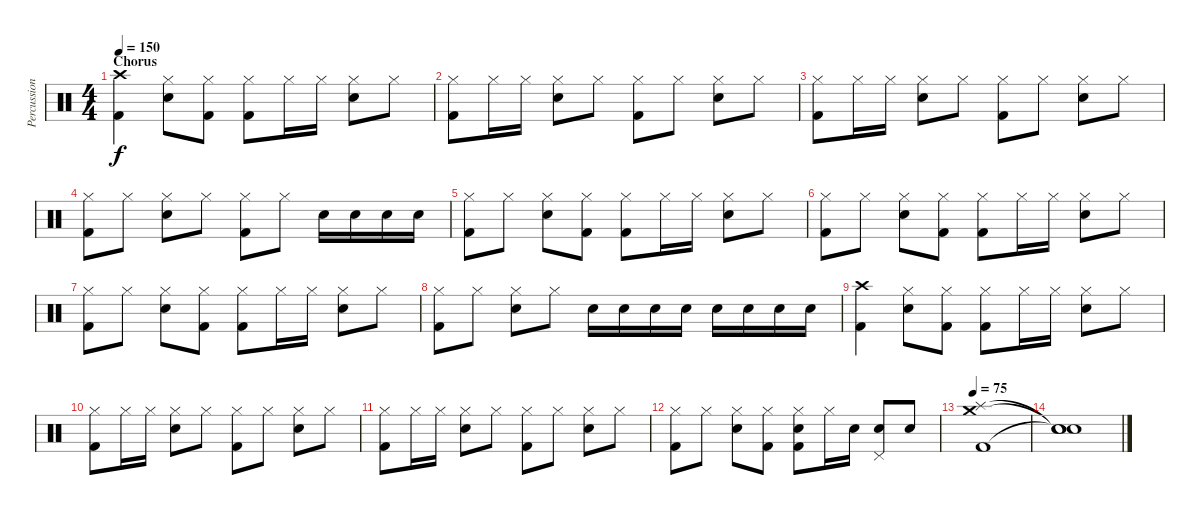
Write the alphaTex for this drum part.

\track ("Percussion" "Percussion") {instrument percussion}
\staff {score}
\articulation defaults
\ts (4 4)
\section ("" "Chorus")
\tempo 150
\clef neutral
\ks c
("Crash high (hit)" "Kick (hit) 2").4{dy f} ("Hi-Hat (closed)" "Snare (hit) 2").8 ("Hi-Hat (closed)" "Kick (hit) 2").8 ("Hi-Hat (closed)" "Kick (hit) 2").8 "Hi-Hat (closed)".16 "Hi-Hat (closed)".16 ("Hi-Hat (closed)" "Snare (hit) 2").8 "Hi-Hat (closed)".8 |
("Hi-Hat (closed)" "Kick (hit) 2").8 "Hi-Hat (closed)".16 "Hi-Hat (closed)".16 ("Hi-Hat (closed)" "Snare (hit) 2").8 "Hi-Hat (closed)".8 ("Hi-Hat (closed)" "Kick (hit) 2").8 "Hi-Hat (closed)".8 ("Hi-Hat (closed)" "Snare (hit) 2").8 "Hi-Hat (closed)".8 |
("Hi-Hat (closed)" "Kick (hit) 2").8 "Hi-Hat (closed)".16 "Hi-Hat (closed)".16 ("Hi-Hat (closed)" "Snare (hit) 2").8 "Hi-Hat (closed)".8 ("Hi-Hat (closed)" "Kick (hit) 2").8 "Hi-Hat (closed)".8 ("Hi-Hat (closed)" "Snare (hit) 2").8 "Hi-Hat (closed)".8 |
("Hi-Hat (closed)" "Kick (hit) 2").8 "Hi-Hat (closed)".8 ("Hi-Hat (closed)" "Snare (hit) 2").8 "Hi-Hat (closed)".8 ("Hi-Hat (closed)" "Kick (hit) 2").8 "Hi-Hat (closed)".8 "Snare (hit) 2".16 "Snare (hit) 2".16 "Snare (hit) 2".16 "Snare (hit) 2".16 |
("Hi-Hat (closed)" "Kick (hit) 2").8 "Hi-Hat (closed)".8 ("Hi-Hat (closed)" "Snare (hit) 2").8 ("Hi-Hat (closed)" "Kick (hit) 2").8 ("Hi-Hat (closed)" "Kick (hit) 2").8 "Hi-Hat (closed)".16 "Hi-Hat (closed)".16 ("Hi-Hat (closed)" "Snare (hit) 2").8 "Hi-Hat (closed)".8 |
("Hi-Hat (closed)" "Kick (hit) 2").8 "Hi-Hat (closed)".8 ("Hi-Hat (closed)" "Snare (hit) 2").8 ("Hi-Hat (closed)" "Kick (hit) 2").8 ("Hi-Hat (closed)" "Kick (hit) 2").8 "Hi-Hat (closed)".16 "Hi-Hat (closed)".16 ("Hi-Hat (closed)" "Snare (hit) 2").8 "Hi-Hat (closed)".8 |
("Hi-Hat (closed)" "Kick (hit) 2").8 "Hi-Hat (closed)".8 ("Hi-Hat (closed)" "Snare (hit) 2").8 ("Hi-Hat (closed)" "Kick (hit) 2").8 ("Hi-Hat (closed)" "Kick (hit) 2").8 "Hi-Hat (closed)".16 "Hi-Hat (closed)".16 ("Hi-Hat (closed)" "Snare (hit) 2").8 "Hi-Hat (closed)".8 |
("Hi-Hat (closed)" "Kick (hit) 2").8 "Hi-Hat (closed)".8 ("Hi-Hat (closed)" "Snare (hit) 2").8 "Hi-Hat (closed)".8 "Snare (hit) 2".16 "Snare (hit) 2".16 "Snare (hit) 2".16 "Snare (hit) 2".16 "Snare (hit) 2".16 "Snare (hit) 2".16 "Snare (hit) 2".16 "Snare (hit) 2".16 |
("Crash high (hit)" "Kick (hit) 2").4 ("Hi-Hat (closed)" "Snare (hit) 2").8 ("Hi-Hat (closed)" "Kick (hit) 2").8 ("Hi-Hat (closed)" "Kick (hit) 2").8 "Hi-Hat (closed)".16 "Hi-Hat (closed)".16 ("Hi-Hat (closed)" "Snare (hit) 2").8 "Hi-Hat (closed)".8 |
("Hi-Hat (closed)" "Kick (hit) 2").8 "Hi-Hat (closed)".16 "Hi-Hat (closed)".16 ("Hi-Hat (closed)" "Snare (hit) 2").8 "Hi-Hat (closed)".8 ("Hi-Hat (closed)" "Kick (hit) 2").8 "Hi-Hat (closed)".8 ("Hi-Hat (closed)" "Snare (hit) 2").8 "Hi-Hat (closed)".8 |
("Hi-Hat (closed)" "Kick (hit) 2").8 "Hi-Hat (closed)".16 "Hi-Hat (closed)".16 ("Hi-Hat (closed)" "Snare (hit) 2").8 "Hi-Hat (closed)".8 ("Hi-Hat (closed)" "Kick (hit) 2").8 "Hi-Hat (closed)".8 ("Hi-Hat (closed)" "Snare (hit) 2").8 "Hi-Hat (closed)".8 |
("Hi-Hat (closed)" "Kick (hit) 2").8 "Hi-Hat (closed)".8 ("Hi-Hat (closed)" "Snare (hit) 2").8 ("Hi-Hat (closed)" "Kick (hit) 2").8 ("Hi-Hat (closed)" "Snare (hit) 2" "Kick (hit) 2").8 "Hi-Hat (closed)".16 "Snare (hit) 2".16 ("Pedal Hi-Hat (hit)" "Snare (hit) 2").8 "Snare (hit) 2".8 |
\tempo 75
("Crash medium (hit)" "Splash (hit)" "Kick (hit) 2").1 |
("Snare (hit)"{t} "Snare (hit)"{t} "Snare (hit)"{t}).1
